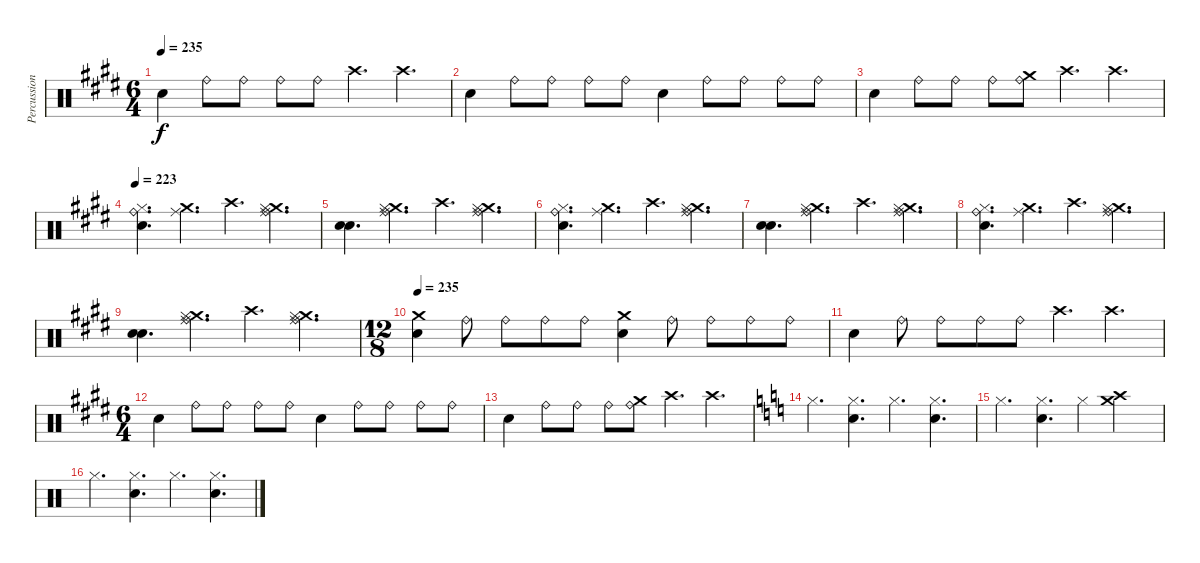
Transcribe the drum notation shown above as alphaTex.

\track ("Percussion" "Percussion") {instrument percussion}
\staff {score}
\articulation defaults
\ts (6 4)
\tempo 235
\clef neutral
\ks e "Snare (hit) 2".4{dy f} "Ride (bell)".8 "Ride (bell)".8 "Ride (bell)".8 "Ride (bell)".8 "Crash high (hit)".4{d} "Crash high (hit)".4{d}
|
"Snare (hit) 2".4 "Ride (bell)".8 "Ride (bell)".8 "Ride (bell)".8 "Ride (bell)".8 "Snare (hit) 2".4 "Ride (bell)".8 "Ride (bell)".8 "Ride (bell)".8 "Ride (bell)".8 |
"Snare (hit) 2".4 "Ride (bell)".8 "Ride (bell)".8 "Ride (bell)".8 ("Crash medium (hit)" "Ride (bell)").8 "Crash high (hit)".4{d} "Crash high (hit)".4{d} |
\tempo 223
("Hi-Hat (closed)" "Snare (hit) 2" "Ride (bell)").4{d} ("Ride (middle)" "Crash medium (hit)").4{d} "Crash high (hit)".4{d} ("Ride (middle)" "Crash medium (hit)" "Hi-Hat (closed)" "Ride (bell)").4{d} |
("Snare (hit) 2" "Snare (hit) 2").4{d} ("Ride (middle)" "Crash medium (hit)" "Hi-Hat (closed)" "Ride (bell)").4{d} "Crash high (hit)".4{d} ("Ride (middle)" "Crash medium (hit)" "Hi-Hat (closed)" "Ride (bell)").4{d} |
("Hi-Hat (closed)" "Snare (hit) 2" "Ride (bell)").4{d} ("Ride (middle)" "Crash medium (hit)").4{d} "Crash high (hit)".4{d} ("Ride (middle)" "Crash medium (hit)" "Hi-Hat (closed)" "Ride (bell)").4{d} |
("Snare (hit) 2" "Snare (hit) 2").4{d} ("Ride (middle)" "Crash medium (hit)" "Hi-Hat (closed)" "Ride (bell)").4{d} "Crash high (hit)".4{d} ("Ride (middle)" "Crash medium (hit)" "Hi-Hat (closed)" "Ride (bell)").4{d} |
("Hi-Hat (closed)" "Snare (hit) 2" "Ride (bell)").4{d} ("Ride (middle)" "Crash medium (hit)").4{d} "Crash high (hit)".4{d} ("Ride (middle)" "Crash medium (hit)" "Hi-Hat (closed)" "Ride (bell)").4{d} |
("Snare (hit) 2" "Snare (hit) 2").4{d} ("Ride (middle)" "Crash medium (hit)" "Hi-Hat (closed)" "Ride (bell)").4{d} "Crash high (hit)".4{d} ("Ride (middle)" "Crash medium (hit)" "Hi-Hat (closed)" "Ride (bell)").4{d} |
\ts (12 8)
\tempo 235
("Snare (hit) 2" "Crash medium (hit)").4 "Ride (bell)".8 "Ride (bell)".8 "Ride (bell)".8 "Ride (bell)".8 ("Snare (hit) 2" "Crash medium (hit)").4 "Ride (bell)".8 "Ride (bell)".8 "Ride (bell)".8 "Ride (bell)".8 |
"Snare (hit) 2".4 "Ride (bell)".8 "Ride (bell)".8 "Ride (bell)".8 "Ride (bell)".8 "Crash high (hit)".4{d} "Crash high (hit)".4{d} |
\ts (6 4)
"Snare (hit) 2".4 "Ride (bell)".8 "Ride (bell)".8 "Ride (bell)".8 "Ride (bell)".8 "Snare (hit) 2".4 "Ride (bell)".8 "Ride (bell)".8 "Ride (bell)".8 "Ride (bell)".8 |
"Snare (hit) 2".4 "Ride (bell)".8 "Ride (bell)".8 "Ride (bell)".8 ("Crash medium (hit)" "Ride (bell)").8 "Crash high (hit)".4{d} "Crash high (hit)".4{d} |
\ks c "Hi-Hat (closed)".4{d}
("Hi-Hat (closed)" "Snare (hit) 2").4{d} "Hi-Hat (closed)".4{d} ("Hi-Hat (closed)" "Snare (hit) 2").4{d} |
"Hi-Hat (closed)".4{d} ("Hi-Hat (closed)" "Snare (hit) 2").4{d} "Hi-Hat (closed)".4 ("Crash high (hit)" "Crash medium (hit)").2 |
"Hi-Hat (closed)".4{d} ("Hi-Hat (closed)" "Snare (hit) 2").4{d} "Hi-Hat (closed)".4{d} ("Hi-Hat (closed)" "Snare (hit) 2").4{d}
